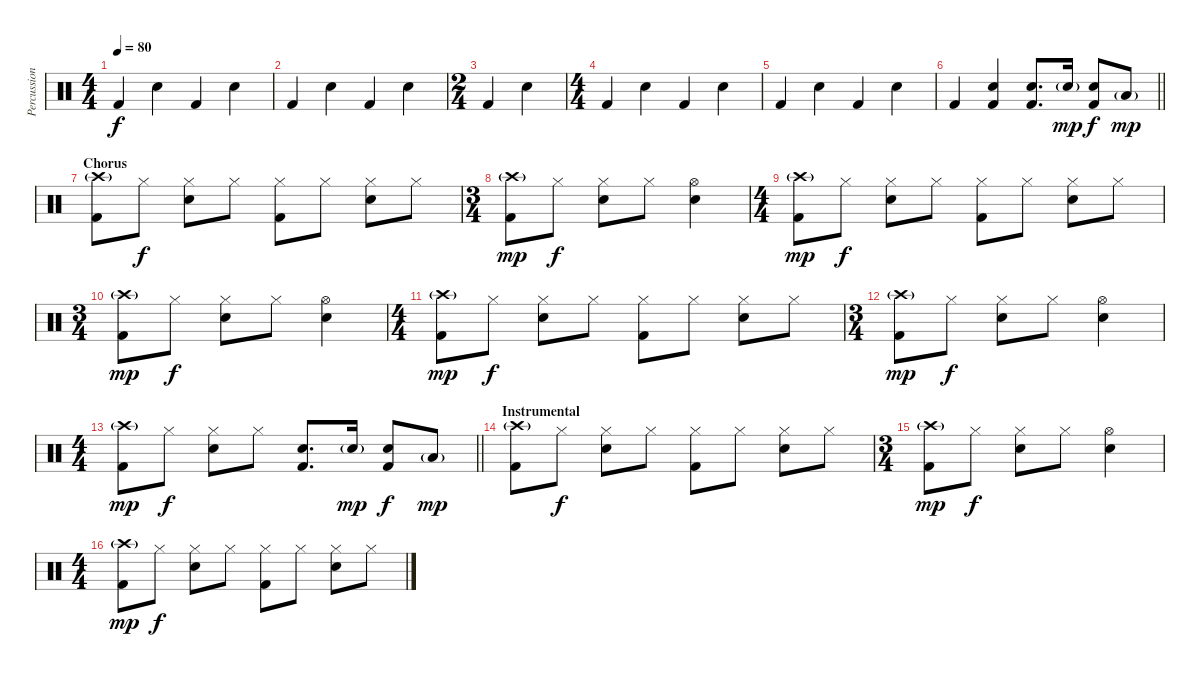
\track ("Percussion" "Percussion") {instrument percussion}
\staff {score}
\articulation defaults
\ts (4 4)
\tempo 80
\clef neutral
\ks c "Kick (hit) 2".4{dy f} "Snare (hit) 2".4 "Kick (hit) 2".4 "Snare (hit) 2".4
|
"Kick (hit) 2".4 "Snare (hit) 2".4 "Kick (hit) 2".4 "Snare (hit) 2".4 |
\ts (2 4)
"Kick (hit) 2".4 "Snare (hit) 2".4 |
\ts (4 4)
"Kick (hit) 2".4 "Snare (hit) 2".4 "Kick (hit) 2".4 "Snare (hit) 2".4 |
"Kick (hit) 2".4 "Snare (hit) 2".4 "Kick (hit) 2".4 "Snare (hit) 2".4 |
\barLineRight lightlight "Kick (hit) 2".4
("Snare (hit) 2" "Kick (hit) 2").4 ("Snare (hit) 2" "Kick (hit) 2").8{d} "Snare (hit) 2"{g}.16{dy mp} ("Snare (hit) 2" "Kick (hit) 2").8{dy f} "Low Floor Tom (hit)"{g}.8{dy mp} |
\section ("" "Chorus")
("Crash high (hit)"{g} "Kick (hit) 2").8 "Hi-Hat (closed)".8{dy f} ("Hi-Hat (closed)" "Snare (hit) 2").8 "Hi-Hat (closed)".8 ("Hi-Hat (closed)" "Kick (hit) 2").8 "Hi-Hat (closed)".8 ("Hi-Hat (closed)" "Snare (hit) 2").8 "Hi-Hat (closed)".8 |
\ts (3 4)
("Crash high (hit)"{g} "Kick (hit) 2").8{dy mp} "Hi-Hat (closed)".8{dy f} ("Hi-Hat (closed)" "Snare (hit) 2").8 "Hi-Hat (closed)".8 ("Hi-Hat (open)" "Snare (hit) 2").4 |
\ts (4 4)
("Crash high (hit)"{g} "Kick (hit) 2").8{dy mp} "Hi-Hat (closed)".8{dy f} ("Hi-Hat (closed)" "Snare (hit) 2").8 "Hi-Hat (closed)".8 ("Hi-Hat (closed)" "Kick (hit) 2").8 "Hi-Hat (closed)".8 ("Hi-Hat (closed)" "Snare (hit) 2").8 "Hi-Hat (closed)".8 |
\ts (3 4)
("Crash high (hit)"{g} "Kick (hit) 2").8{dy mp} "Hi-Hat (closed)".8{dy f} ("Hi-Hat (closed)" "Snare (hit) 2").8 "Hi-Hat (closed)".8 ("Hi-Hat (open)" "Snare (hit) 2").4 |
\ts (4 4)
("Crash high (hit)"{g} "Kick (hit) 2").8{dy mp} "Hi-Hat (closed)".8{dy f} ("Hi-Hat (closed)" "Snare (hit) 2").8 "Hi-Hat (closed)".8 ("Hi-Hat (closed)" "Kick (hit) 2").8 "Hi-Hat (closed)".8 ("Hi-Hat (closed)" "Snare (hit) 2").8 "Hi-Hat (closed)".8 |
\ts (3 4)
("Crash high (hit)"{g} "Kick (hit) 2").8{dy mp} "Hi-Hat (closed)".8{dy f} ("Hi-Hat (closed)" "Snare (hit) 2").8 "Hi-Hat (closed)".8 ("Hi-Hat (open)" "Snare (hit) 2").4 |
\ts (4 4)
\barLineRight lightlight
("Crash high (hit)"{g} "Kick (hit) 2").8{dy mp} "Hi-Hat (closed)".8{dy f} ("Hi-Hat (closed)" "Snare (hit) 2").8 "Hi-Hat (closed)".8 ("Snare (hit) 2" "Kick (hit) 2").8{d} "Snare (hit) 2"{g}.16{dy mp} ("Snare (hit) 2" "Kick (hit) 2").8{dy f} "Low Floor Tom (hit)"{g}.8{dy mp} |
\section ("" "Instrumental")
("Crash high (hit)"{g} "Kick (hit) 2").8 "Hi-Hat (closed)".8{dy f} ("Hi-Hat (closed)" "Snare (hit) 2").8 "Hi-Hat (closed)".8 ("Hi-Hat (closed)" "Kick (hit) 2").8 "Hi-Hat (closed)".8 ("Hi-Hat (closed)" "Snare (hit) 2").8 "Hi-Hat (closed)".8 |
\ts (3 4)
("Crash high (hit)"{g} "Kick (hit) 2").8{dy mp} "Hi-Hat (closed)".8{dy f} ("Hi-Hat (closed)" "Snare (hit) 2").8 "Hi-Hat (closed)".8 ("Hi-Hat (open)" "Snare (hit) 2").4 |
\ts (4 4)
("Crash high (hit)"{g} "Kick (hit) 2").8{dy mp} "Hi-Hat (closed)".8{dy f} ("Hi-Hat (closed)" "Snare (hit) 2").8 "Hi-Hat (closed)".8 ("Hi-Hat (closed)" "Kick (hit) 2").8 "Hi-Hat (closed)".8 ("Hi-Hat (closed)" "Snare (hit) 2").8 "Hi-Hat (closed)".8
